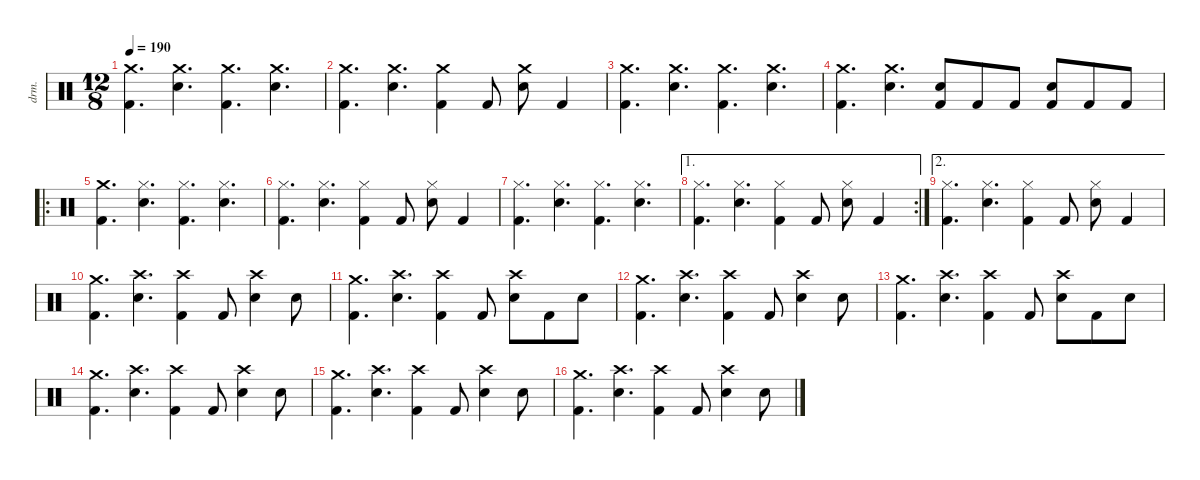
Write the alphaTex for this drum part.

\defaultSystemsLayout 4
\hideDynamics
\bracketExtendMode nobrackets
\otherSystemsTrackNameOrientation horizontal
\track ("Drums" "drm.") {defaultSystemsLayout 4 instrument percussion}
\staff {score}
\articulation defaults
\ts (12 8)
\tempo 190
\clef neutral
\ks c
("Crash medium (hit)" "Kick (hit) 2").4{d dy f beam Down} ("Crash medium (hit)" "Snare (hit) 2").4{d beam Down} ("Crash medium (hit)" "Kick (hit) 2").4{d beam Down} ("Crash medium (hit)" "Snare (hit) 2").4{d beam Down} |
("Crash medium (hit)" "Kick (hit) 2").4{d beam Down} ("Crash medium (hit)" "Snare (hit) 2").4{d beam Down} ("Crash medium (hit)" "Kick (hit) 2").4{beam Down} "Kick (hit) 2".8{beam Up} ("Crash medium (hit)" "Snare (hit) 2").8{beam Down} "Kick (hit) 2".4{beam Up} |
("Crash medium (hit)" "Kick (hit) 2").4{d beam Down} ("Crash medium (hit)" "Snare (hit) 2").4{d beam Down} ("Crash medium (hit)" "Kick (hit) 2").4{d beam Down} ("Crash medium (hit)" "Snare (hit) 2").4{d beam Down} |
("Crash medium (hit)" "Kick (hit) 2").4{d beam Down} ("Crash medium (hit)" "Snare (hit) 2").4{d beam Down} ("Snare (hit) 2" "Kick (hit) 2").8{beam Up} "Kick (hit) 2".8{beam Up} "Kick (hit) 2".8{beam Up} ("Snare (hit) 2" "Kick (hit) 2").8{beam Up} "Kick (hit) 2".8{beam Up} "Kick (hit) 2".8{beam Up} |
\ro
("Crash medium (hit)" "Kick (hit) 2").4{d beam Down} ("Hi-Hat (closed)" "Snare (hit) 2").4{d beam Down} ("Hi-Hat (closed)" "Kick (hit) 2").4{d beam Down} ("Hi-Hat (closed)" "Snare (hit) 2").4{d beam Down} |
("Hi-Hat (closed)" "Kick (hit) 2").4{d beam Down} ("Hi-Hat (closed)" "Snare (hit) 2").4{d beam Down} ("Hi-Hat (closed)" "Kick (hit) 2").4{beam Down} "Kick (hit) 2".8{beam Up} ("Hi-Hat (closed)" "Snare (hit) 2").8{beam Down} "Kick (hit) 2".4{beam Up} |
("Hi-Hat (closed)" "Kick (hit) 2").4{d beam Down} ("Hi-Hat (closed)" "Snare (hit) 2").4{d beam Down} ("Hi-Hat (closed)" "Kick (hit) 2").4{d beam Down} ("Hi-Hat (closed)" "Snare (hit) 2").4{d beam Down} |
\ae 1
\rc 2
("Hi-Hat (closed)" "Kick (hit) 2").4{d beam Down} ("Hi-Hat (closed)" "Snare (hit) 2").4{d beam Down} ("Hi-Hat (closed)" "Kick (hit) 2").4{beam Down} "Kick (hit) 2".8{beam Up} ("Hi-Hat (closed)" "Snare (hit) 2").8{beam Down} "Kick (hit) 2".4{beam Up} |
\ae 2
("Hi-Hat (closed)" "Kick (hit) 2").4{d beam Down} ("Hi-Hat (closed)" "Snare (hit) 2").4{d beam Down} ("Hi-Hat (closed)" "Kick (hit) 2").4{beam Down} "Kick (hit) 2".8{beam Up} ("Hi-Hat (closed)" "Snare (hit) 2").8{beam Down} "Kick (hit) 2".4{beam Up} |
("Crash medium (hit)" "Kick (hit) 2").4{d beam Down} ("Crash high (hit)" "Snare (hit) 2").4{d beam Down} ("Crash high (hit)" "Kick (hit) 2").4{beam Down} "Kick (hit) 2".8{beam Up} ("Crash high (hit)" "Snare (hit) 2").4{beam Down} "Snare (hit) 2".8{beam Down} |
("Crash medium (hit)" "Kick (hit) 2").4{d beam Down} ("Crash high (hit)" "Snare (hit) 2").4{d beam Down} ("Crash high (hit)" "Kick (hit) 2").4{beam Down} "Kick (hit) 2".8{beam Up} ("Crash high (hit)" "Snare (hit) 2").8{beam Down} "Kick (hit) 2".8{beam Down} "Snare (hit) 2".8{beam Down} |
("Crash medium (hit)" "Kick (hit) 2").4{d beam Down} ("Crash high (hit)" "Snare (hit) 2").4{d beam Down} ("Crash high (hit)" "Kick (hit) 2").4{beam Down} "Kick (hit) 2".8{beam Up} ("Crash high (hit)" "Snare (hit) 2").4{beam Down} "Snare (hit) 2".8{beam Down} |
("Crash medium (hit)" "Kick (hit) 2").4{d beam Down} ("Crash high (hit)" "Snare (hit) 2").4{d beam Down} ("Crash high (hit)" "Kick (hit) 2").4{beam Down} "Kick (hit) 2".8{beam Up} ("Crash high (hit)" "Snare (hit) 2").8{beam Down} "Kick (hit) 2".8{beam Down} "Snare (hit) 2".8{beam Down} |
("Crash medium (hit)" "Kick (hit) 2").4{d beam Down} ("Crash high (hit)" "Snare (hit) 2").4{d beam Down} ("Crash high (hit)" "Kick (hit) 2").4{beam Down} "Kick (hit) 2".8{beam Up} ("Crash high (hit)" "Snare (hit) 2").4{beam Down} "Snare (hit) 2".8{beam Down} |
("Crash medium (hit)" "Kick (hit) 2").4{d beam Down} ("Crash high (hit)" "Snare (hit) 2").4{d beam Down} ("Crash high (hit)" "Kick (hit) 2").4{beam Down} "Kick (hit) 2".8{beam Up} ("Crash high (hit)" "Snare (hit) 2").4{beam Down} "Snare (hit) 2".8{beam Down} |
("Crash medium (hit)" "Kick (hit) 2").4{d beam Down} ("Crash high (hit)" "Snare (hit) 2").4{d beam Down} ("Crash high (hit)" "Kick (hit) 2").4{beam Down} "Kick (hit) 2".8{beam Up} ("Crash high (hit)" "Snare (hit) 2").4{beam Down} "Snare (hit) 2".8{beam Down}
